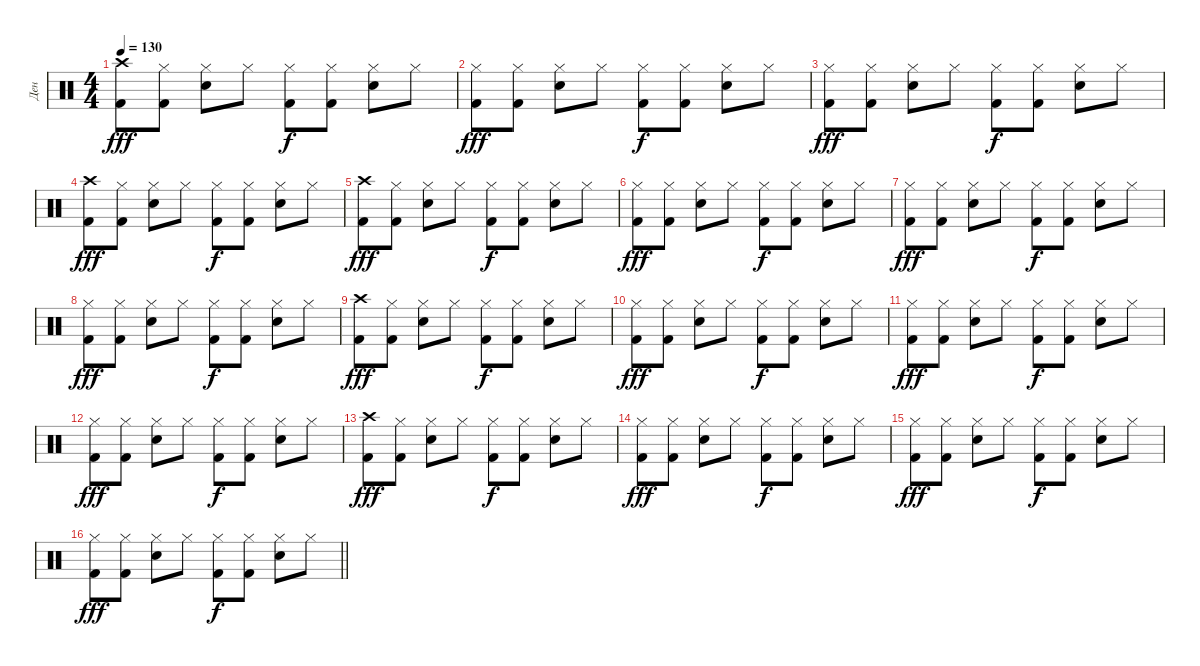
\track ("Ден" "Ден") {instrument percussion}
\staff {score}
\articulation defaults
\ts (4 4)
\tempo 130
\clef neutral
\ks c
("Crash high (hit)" "Kick (hit) 2").8{dy fff} ("Hi-Hat (closed)" "Kick (hit) 2").8 ("Hi-Hat (closed)" "Snare (hit) 2").8 "Hi-Hat (closed)".8 ("Hi-Hat (closed)" "Kick (hit) 2").8{dy f} ("Hi-Hat (closed)" "Kick (hit) 2").8 ("Hi-Hat (closed)" "Snare (hit) 2").8 "Hi-Hat (closed)".8 |
("Hi-Hat (closed)" "Kick (hit) 2").8{dy fff} ("Hi-Hat (closed)" "Kick (hit) 2").8 ("Hi-Hat (closed)" "Snare (hit) 2").8 "Hi-Hat (closed)".8 ("Hi-Hat (closed)" "Kick (hit) 2").8{dy f} ("Hi-Hat (closed)" "Kick (hit) 2").8 ("Hi-Hat (closed)" "Snare (hit) 2").8 "Hi-Hat (closed)".8 |
("Hi-Hat (closed)" "Kick (hit) 2").8{dy fff} ("Hi-Hat (closed)" "Kick (hit) 2").8 ("Hi-Hat (closed)" "Snare (hit) 2").8 "Hi-Hat (closed)".8 ("Hi-Hat (closed)" "Kick (hit) 2").8{dy f} ("Hi-Hat (closed)" "Kick (hit) 2").8 ("Hi-Hat (closed)" "Snare (hit) 2").8 "Hi-Hat (closed)".8 |
("Crash high (hit)" "Kick (hit) 2").8{dy fff} ("Hi-Hat (closed)" "Kick (hit) 2").8 ("Hi-Hat (closed)" "Snare (hit) 2").8 "Hi-Hat (closed)".8 ("Hi-Hat (closed)" "Kick (hit) 2").8{dy f} ("Hi-Hat (closed)" "Kick (hit) 2").8 ("Hi-Hat (closed)" "Snare (hit) 2").8 "Hi-Hat (closed)".8 |
("Crash high (hit)" "Kick (hit) 2").8{dy fff} ("Hi-Hat (closed)" "Kick (hit) 2").8 ("Hi-Hat (closed)" "Snare (hit) 2").8 "Hi-Hat (closed)".8 ("Hi-Hat (closed)" "Kick (hit) 2").8{dy f} ("Hi-Hat (closed)" "Kick (hit) 2").8 ("Hi-Hat (closed)" "Snare (hit) 2").8 "Hi-Hat (closed)".8 |
("Hi-Hat (closed)" "Kick (hit) 2").8{dy fff} ("Hi-Hat (closed)" "Kick (hit) 2").8 ("Hi-Hat (closed)" "Snare (hit) 2").8 "Hi-Hat (closed)".8 ("Hi-Hat (closed)" "Kick (hit) 2").8{dy f} ("Hi-Hat (closed)" "Kick (hit) 2").8 ("Hi-Hat (closed)" "Snare (hit) 2").8 "Hi-Hat (closed)".8 |
("Hi-Hat (closed)" "Kick (hit) 2").8{dy fff} ("Hi-Hat (closed)" "Kick (hit) 2").8 ("Hi-Hat (closed)" "Snare (hit) 2").8 "Hi-Hat (closed)".8 ("Hi-Hat (closed)" "Kick (hit) 2").8{dy f} ("Hi-Hat (closed)" "Kick (hit) 2").8 ("Hi-Hat (closed)" "Snare (hit) 2").8 "Hi-Hat (closed)".8 |
("Hi-Hat (closed)" "Kick (hit) 2").8{dy fff} ("Hi-Hat (closed)" "Kick (hit) 2").8 ("Hi-Hat (closed)" "Snare (hit) 2").8 "Hi-Hat (closed)".8 ("Hi-Hat (closed)" "Kick (hit) 2").8{dy f} ("Hi-Hat (closed)" "Kick (hit) 2").8 ("Hi-Hat (closed)" "Snare (hit) 2").8 "Hi-Hat (closed)".8 |
("Crash high (hit)" "Kick (hit) 2").8{dy fff} ("Hi-Hat (closed)" "Kick (hit) 2").8 ("Hi-Hat (closed)" "Snare (hit) 2").8 "Hi-Hat (closed)".8 ("Hi-Hat (closed)" "Kick (hit) 2").8{dy f} ("Hi-Hat (closed)" "Kick (hit) 2").8 ("Hi-Hat (closed)" "Snare (hit) 2").8 "Hi-Hat (closed)".8 |
("Hi-Hat (closed)" "Kick (hit) 2").8{dy fff} ("Hi-Hat (closed)" "Kick (hit) 2").8 ("Hi-Hat (closed)" "Snare (hit) 2").8 "Hi-Hat (closed)".8 ("Hi-Hat (closed)" "Kick (hit) 2").8{dy f} ("Hi-Hat (closed)" "Kick (hit) 2").8 ("Hi-Hat (closed)" "Snare (hit) 2").8 "Hi-Hat (closed)".8 |
("Hi-Hat (closed)" "Kick (hit) 2").8{dy fff} ("Hi-Hat (closed)" "Kick (hit) 2").8 ("Hi-Hat (closed)" "Snare (hit) 2").8 "Hi-Hat (closed)".8 ("Hi-Hat (closed)" "Kick (hit) 2").8{dy f} ("Hi-Hat (closed)" "Kick (hit) 2").8 ("Hi-Hat (closed)" "Snare (hit) 2").8 "Hi-Hat (closed)".8 |
("Hi-Hat (closed)" "Kick (hit) 2").8{dy fff} ("Hi-Hat (closed)" "Kick (hit) 2").8 ("Hi-Hat (closed)" "Snare (hit) 2").8 "Hi-Hat (closed)".8 ("Hi-Hat (closed)" "Kick (hit) 2").8{dy f} ("Hi-Hat (closed)" "Kick (hit) 2").8 ("Hi-Hat (closed)" "Snare (hit) 2").8 "Hi-Hat (closed)".8 |
("Crash high (hit)" "Kick (hit) 2").8{dy fff} ("Hi-Hat (closed)" "Kick (hit) 2").8 ("Hi-Hat (closed)" "Snare (hit) 2").8 "Hi-Hat (closed)".8 ("Hi-Hat (closed)" "Kick (hit) 2").8{dy f} ("Hi-Hat (closed)" "Kick (hit) 2").8 ("Hi-Hat (closed)" "Snare (hit) 2").8 "Hi-Hat (closed)".8 |
("Hi-Hat (closed)" "Kick (hit) 2").8{dy fff} ("Hi-Hat (closed)" "Kick (hit) 2").8 ("Hi-Hat (closed)" "Snare (hit) 2").8 "Hi-Hat (closed)".8 ("Hi-Hat (closed)" "Kick (hit) 2").8{dy f} ("Hi-Hat (closed)" "Kick (hit) 2").8 ("Hi-Hat (closed)" "Snare (hit) 2").8 "Hi-Hat (closed)".8 |
("Hi-Hat (closed)" "Kick (hit) 2").8{dy fff} ("Hi-Hat (closed)" "Kick (hit) 2").8 ("Hi-Hat (closed)" "Snare (hit) 2").8 "Hi-Hat (closed)".8 ("Hi-Hat (closed)" "Kick (hit) 2").8{dy f} ("Hi-Hat (closed)" "Kick (hit) 2").8 ("Hi-Hat (closed)" "Snare (hit) 2").8 "Hi-Hat (closed)".8 |
\barLineRight lightlight
("Hi-Hat (closed)" "Kick (hit) 2").8{dy fff} ("Hi-Hat (closed)" "Kick (hit) 2").8 ("Hi-Hat (closed)" "Snare (hit) 2").8 "Hi-Hat (closed)".8 ("Hi-Hat (closed)" "Kick (hit) 2").8{dy f} ("Hi-Hat (closed)" "Kick (hit) 2").8 ("Hi-Hat (closed)" "Snare (hit) 2").8 "Hi-Hat (closed)".8
